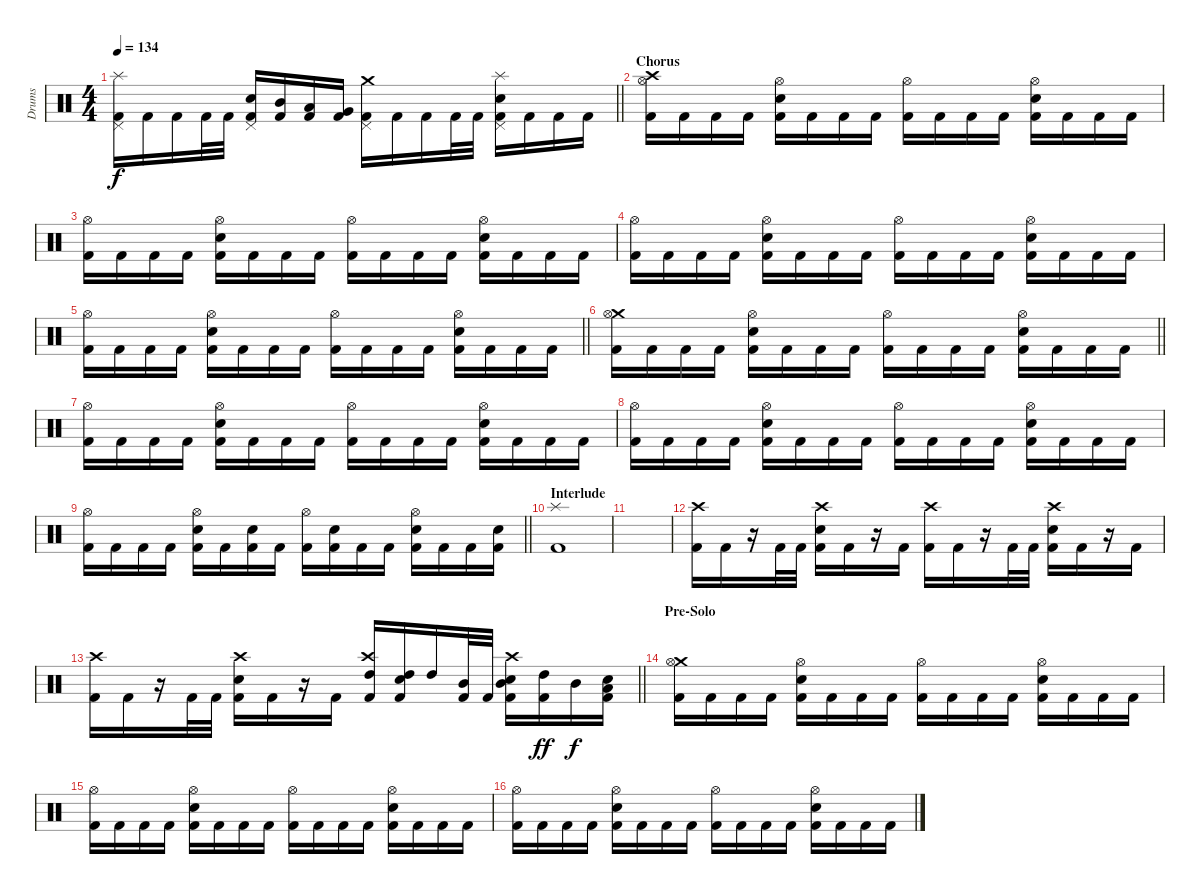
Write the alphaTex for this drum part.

\track ("Drums" "Drums") {instrument percussion}
\staff {score}
\articulation defaults
\ts (4 4)
\tempo 134
\clef neutral
\barLineRight lightlight
\ks c
("Splash (hit)" "Pedal Hi-Hat (hit)" "Kick (hit) 2").16{dy f} "Kick (hit) 2".16 "Kick (hit) 2".16 "Kick (hit) 2".32 "Kick (hit) 2".32 ("Pedal Hi-Hat (hit)" "Snare (hit) 2" "Kick (hit) 2").16 ("Mid Tom (hit)" "Kick (hit) 2").16 ("Low Tom (hit)" "Kick (hit) 2").16 ("Very Low Tom (hit)" "Kick (hit) 2").16 ("Crash medium (hit)" "Pedal Hi-Hat (hit)" "Kick (hit) 2").16 "Kick (hit) 2".16 "Kick (hit) 2".16 "Kick (hit) 2".32 "Kick (hit) 2".32 ("Splash (hit)" "Pedal Hi-Hat (hit)" "Snare (hit) 2" "Kick (hit) 2").16 "Kick (hit) 2".16 "Kick (hit) 2".16 "Kick (hit) 2".16 |
\section ("" "Chorus")
("Crash high (hit)" "Hi-Hat (open)" "Kick (hit) 2").16 "Kick (hit) 2".16 "Kick (hit) 2".16 "Kick (hit) 2".16 ("Hi-Hat (open)" "Snare (hit) 2" "Kick (hit) 2").16 "Kick (hit) 2".16 "Kick (hit) 2".16 "Kick (hit) 2".16 ("Hi-Hat (open)" "Kick (hit) 2").16 "Kick (hit) 2".16 "Kick (hit) 2".16 "Kick (hit) 2".16 ("Hi-Hat (open)" "Snare (hit) 2" "Kick (hit) 2").16 "Kick (hit) 2".16 "Kick (hit) 2".16 "Kick (hit) 2".16 |
("Hi-Hat (open)" "Kick (hit) 2").16 "Kick (hit) 2".16 "Kick (hit) 2".16 "Kick (hit) 2".16 ("Hi-Hat (open)" "Snare (hit) 2" "Kick (hit) 2").16 "Kick (hit) 2".16 "Kick (hit) 2".16 "Kick (hit) 2".16 ("Hi-Hat (open)" "Kick (hit) 2").16 "Kick (hit) 2".16 "Kick (hit) 2".16 "Kick (hit) 2".16 ("Hi-Hat (open)" "Snare (hit) 2" "Kick (hit) 2").16 "Kick (hit) 2".16 "Kick (hit) 2".16 "Kick (hit) 2".16 |
("Hi-Hat (open)" "Kick (hit) 2").16 "Kick (hit) 2".16 "Kick (hit) 2".16 "Kick (hit) 2".16 ("Hi-Hat (open)" "Snare (hit) 2" "Kick (hit) 2").16 "Kick (hit) 2".16 "Kick (hit) 2".16 "Kick (hit) 2".16 ("Hi-Hat (open)" "Kick (hit) 2").16 "Kick (hit) 2".16 "Kick (hit) 2".16 "Kick (hit) 2".16 ("Hi-Hat (open)" "Snare (hit) 2" "Kick (hit) 2").16 "Kick (hit) 2".16 "Kick (hit) 2".16 "Kick (hit) 2".16 |
\barLineRight lightlight
("Hi-Hat (open)" "Kick (hit) 2").16 "Kick (hit) 2".16 "Kick (hit) 2".16 "Kick (hit) 2".16 ("Hi-Hat (open)" "Snare (hit) 2" "Kick (hit) 2").16 "Kick (hit) 2".16 "Kick (hit) 2".16 "Kick (hit) 2".16 ("Hi-Hat (open)" "Kick (hit) 2").16 "Kick (hit) 2".16 "Kick (hit) 2".16 "Kick (hit) 2".16 ("Hi-Hat (open)" "Snare (hit) 2" "Kick (hit) 2").16 "Kick (hit) 2".16 "Kick (hit) 2".16 "Kick (hit) 2".16 |
\section ("" "")
\barLineRight lightlight
("Crash medium (hit)" "Hi-Hat (open)" "Kick (hit) 2").16 "Kick (hit) 2".16 "Kick (hit) 2".16 "Kick (hit) 2".16 ("Hi-Hat (open)" "Snare (hit) 2" "Kick (hit) 2").16 "Kick (hit) 2".16 "Kick (hit) 2".16 "Kick (hit) 2".16 ("Hi-Hat (open)" "Kick (hit) 2").16 "Kick (hit) 2".16 "Kick (hit) 2".16 "Kick (hit) 2".16 ("Hi-Hat (open)" "Snare (hit) 2" "Kick (hit) 2").16 "Kick (hit) 2".16 "Kick (hit) 2".16 "Kick (hit) 2".16 |
("Hi-Hat (open)" "Kick (hit) 2").16 "Kick (hit) 2".16 "Kick (hit) 2".16 "Kick (hit) 2".16 ("Hi-Hat (open)" "Snare (hit) 2" "Kick (hit) 2").16 "Kick (hit) 2".16 "Kick (hit) 2".16 "Kick (hit) 2".16 ("Hi-Hat (open)" "Kick (hit) 2").16 "Kick (hit) 2".16 "Kick (hit) 2".16 "Kick (hit) 2".16 ("Hi-Hat (open)" "Snare (hit) 2" "Kick (hit) 2").16 "Kick (hit) 2".16 "Kick (hit) 2".16 "Kick (hit) 2".16 |
("Hi-Hat (open)" "Kick (hit) 2").16 "Kick (hit) 2".16 "Kick (hit) 2".16 "Kick (hit) 2".16 ("Hi-Hat (open)" "Snare (hit) 2" "Kick (hit) 2").16 "Kick (hit) 2".16 "Kick (hit) 2".16 "Kick (hit) 2".16 ("Hi-Hat (open)" "Kick (hit) 2").16 "Kick (hit) 2".16 "Kick (hit) 2".16 "Kick (hit) 2".16 ("Hi-Hat (open)" "Snare (hit) 2" "Kick (hit) 2").16 "Kick (hit) 2".16 "Kick (hit) 2".16 "Kick (hit) 2".16 |
\barLineRight lightlight
("Hi-Hat (open)" "Kick (hit) 2").16 "Kick (hit) 2".16 "Kick (hit) 2".16 "Kick (hit) 2".16 ("Hi-Hat (open)" "Snare (hit) 2" "Kick (hit) 2").16 "Kick (hit) 2".16 ("Snare (hit) 2" "Kick (hit) 2").16 "Kick (hit) 2".16 ("Hi-Hat (open)" "Kick (hit) 2").16 ("Snare (hit) 2" "Kick (hit) 2").16 "Kick (hit) 2".16 "Kick (hit) 2".16 ("Hi-Hat (open)" "Snare (hit) 2" "Kick (hit) 2").16 "Kick (hit) 2".16 "Kick (hit) 2".16 ("Snare (hit) 2" "Kick (hit) 2").16 |
\section ("" "Interlude")
("Splash (hit)" "Kick (hit) 2").1 |
|
("Crash high (hit)" "Kick (hit) 2").16 "Kick (hit) 2".16 r.16 "Kick (hit) 2".32 "Kick (hit) 2".32 ("Crash high (hit)" "Snare (hit) 2" "Kick (hit) 2").16 "Kick (hit) 2".16 r.16 "Kick (hit) 2".16 ("Crash high (hit)" "Kick (hit) 2").16 "Kick (hit) 2".16 r.16 "Kick (hit) 2".32 "Kick (hit) 2".32 ("Crash high (hit)" "Snare (hit) 2" "Kick (hit) 2").16 "Kick (hit) 2".16 r.16 "Kick (hit) 2".16 |
\barLineRight lightlight
("Crash high (hit)" "Kick (hit) 2").16 "Kick (hit) 2".16 r.16 "Kick (hit) 2".32 "Kick (hit) 2".32 ("Crash high (hit)" "Snare (hit) 2" "Kick (hit) 2").16 "Kick (hit) 2".16 r.16 "Kick (hit) 2".16 ("Crash high (hit)" "High Tom (hit)" "Kick (hit) 2").16 ("High Tom (hit)" "Snare (hit) 2" "Kick (hit) 2").16 "High Tom (hit)".16 ("Mid Tom (hit)" "Kick (hit) 2").32 "Kick (hit) 2".32 ("Crash high (hit)" "Mid Tom (hit)" "Snare (hit) 2" "Kick (hit) 2").16 ("High Tom (hit)" "Kick (hit) 2").16{dy ff} "Mid Tom (hit)".16{dy f} ("Low Tom (hit)" "Snare (hit) 2" "Kick (hit) 2").16 |
\section ("" "Pre-Solo")
("Crash medium (hit)" "Hi-Hat (open)" "Kick (hit) 2").16 "Kick (hit) 2".16 "Kick (hit) 2".16 "Kick (hit) 2".16 ("Hi-Hat (open)" "Snare (hit) 2" "Kick (hit) 2").16 "Kick (hit) 2".16 "Kick (hit) 2".16 "Kick (hit) 2".16 ("Hi-Hat (open)" "Kick (hit) 2").16 "Kick (hit) 2".16 "Kick (hit) 2".16 "Kick (hit) 2".16 ("Hi-Hat (open)" "Snare (hit) 2" "Kick (hit) 2").16 "Kick (hit) 2".16 "Kick (hit) 2".16 "Kick (hit) 2".16 |
("Hi-Hat (open)" "Kick (hit) 2").16 "Kick (hit) 2".16 "Kick (hit) 2".16 "Kick (hit) 2".16 ("Hi-Hat (open)" "Snare (hit) 2" "Kick (hit) 2").16 "Kick (hit) 2".16 "Kick (hit) 2".16 "Kick (hit) 2".16 ("Hi-Hat (open)" "Kick (hit) 2").16 "Kick (hit) 2".16 "Kick (hit) 2".16 "Kick (hit) 2".16 ("Hi-Hat (open)" "Snare (hit) 2" "Kick (hit) 2").16 "Kick (hit) 2".16 "Kick (hit) 2".16 "Kick (hit) 2".16 |
("Hi-Hat (open)" "Kick (hit) 2").16 "Kick (hit) 2".16 "Kick (hit) 2".16 "Kick (hit) 2".16 ("Hi-Hat (open)" "Snare (hit) 2" "Kick (hit) 2").16 "Kick (hit) 2".16 "Kick (hit) 2".16 "Kick (hit) 2".16 ("Hi-Hat (open)" "Kick (hit) 2").16 "Kick (hit) 2".16 "Kick (hit) 2".16 "Kick (hit) 2".16 ("Hi-Hat (open)" "Snare (hit) 2" "Kick (hit) 2").16 "Kick (hit) 2".16 "Kick (hit) 2".16 "Kick (hit) 2".16
